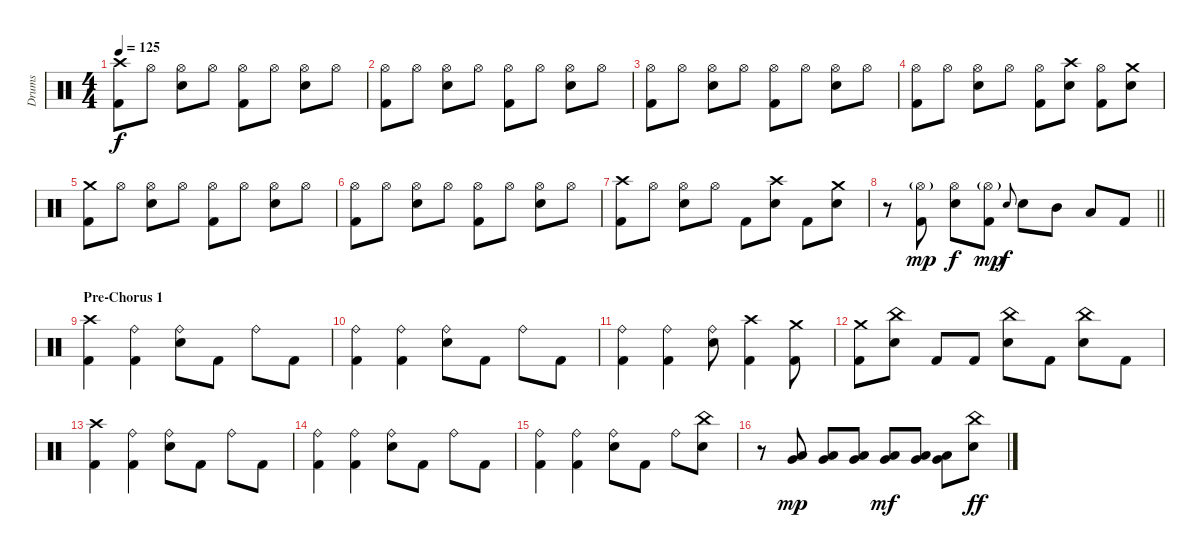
\track ("Drums" "Drums") {instrument percussion}
\staff {score}
\articulation defaults
\ts (4 4)
\tempo 125
\clef neutral
\ks c
("Crash high (hit)" "Kick (hit) 2").8{dy f} "Hi-Hat (open)".8 ("Hi-Hat (open)" "Electric Snare (hit)").8 "Hi-Hat (open)".8 ("Hi-Hat (open)" "Kick (hit) 2").8 "Hi-Hat (open)".8 ("Hi-Hat (open)" "Electric Snare (hit)").8 "Hi-Hat (open)".8 |
("Hi-Hat (open)" "Kick (hit) 2").8 "Hi-Hat (open)".8 ("Hi-Hat (open)" "Electric Snare (hit)").8 "Hi-Hat (open)".8 ("Hi-Hat (open)" "Kick (hit) 2").8 "Hi-Hat (open)".8 ("Hi-Hat (open)" "Electric Snare (hit)").8 "Hi-Hat (open)".8 |
("Hi-Hat (open)" "Kick (hit) 2").8 "Hi-Hat (open)".8 ("Hi-Hat (open)" "Electric Snare (hit)").8 "Hi-Hat (open)".8 ("Hi-Hat (open)" "Kick (hit) 2").8 "Hi-Hat (open)".8 ("Hi-Hat (open)" "Electric Snare (hit)").8 "Hi-Hat (open)".8 |
("Hi-Hat (open)" "Kick (hit) 2").8 "Hi-Hat (open)".8 ("Hi-Hat (open)" "Electric Snare (hit)").8 "Hi-Hat (open)".8 ("Hi-Hat (open)" "Kick (hit) 2").8 ("Crash high (hit)" "Electric Snare (hit)").8 ("Hi-Hat (open)" "Kick (hit) 2").8 ("Crash medium (hit)" "Electric Snare (hit)").8 |
("Crash medium (hit)" "Kick (hit) 2").8 "Hi-Hat (open)".8 ("Hi-Hat (open)" "Electric Snare (hit)").8 "Hi-Hat (open)".8 ("Hi-Hat (open)" "Kick (hit) 2").8 "Hi-Hat (open)".8 ("Hi-Hat (open)" "Electric Snare (hit)").8 "Hi-Hat (open)".8 |
("Hi-Hat (open)" "Kick (hit) 2").8 "Hi-Hat (open)".8 ("Hi-Hat (open)" "Electric Snare (hit)").8 "Hi-Hat (open)".8 ("Hi-Hat (open)" "Kick (hit) 2").8 "Hi-Hat (open)".8 ("Hi-Hat (open)" "Electric Snare (hit)").8 "Hi-Hat (open)".8 |
("Crash high (hit)" "Kick (hit) 2").8 "Hi-Hat (open)".8 ("Hi-Hat (open)" "Electric Snare (hit)").8 "Hi-Hat (open)".8 "Kick (hit) 2".8 ("Crash high (hit)" "Electric Snare (hit)").8 "Kick (hit) 2".8 ("Crash medium (hit)" "Electric Snare (hit)").8 |
\barLineRight lightlight
r.8 ("Hi-Hat (open)"{g} "Kick (hit) 2").8{dy mp} ("Hi-Hat (open)" "Electric Snare (hit)").8{dy f} ("Hi-Hat (open)"{g} "Kick (hit) 2").8{dy mp} "Electric Snare (hit)".8{gr onbeat dy f} "Electric Snare (hit)".8 "Mid Tom (hit)".8 "Low Tom (hit)".8 "Kick (hit) 2".8 |
\section ("" "Pre-Chorus 1")
("Crash high (hit)" "Kick (hit) 2").4 ("Ride (bell)" "Kick (hit) 2").4 ("Ride (bell)" "Electric Snare (hit)").8 "Kick (hit) 2".8 "Ride (bell)".8 "Kick (hit) 2".8 |
("Ride (bell)" "Kick (hit) 2").4 ("Ride (bell)" "Kick (hit) 2").4 ("Ride (bell)" "Electric Snare (hit)").8 "Kick (hit) 2".8 "Ride (bell)".8 "Kick (hit) 2".8 |
("Ride (bell)" "Kick (hit) 2").4 ("Ride (bell)" "Kick (hit) 2").4 ("Ride (bell)" "Electric Snare (hit)").8 ("Crash high (hit)" "Kick (hit) 2").4 ("Crash medium (hit)" "Kick (hit) 2").8 |
("Crash medium (hit)" "Kick (hit) 2").8 ("China (hit)" "Electric Snare (hit)").8 "Kick (hit) 2".8 "Kick (hit) 2".8 ("China (hit)" "Electric Snare (hit)").8 "Kick (hit) 2".8 ("China (hit)" "Electric Snare (hit)").8 "Kick (hit) 2".8 |
("Crash high (hit)" "Kick (hit) 2").4 ("Ride (bell)" "Kick (hit) 2").4 ("Ride (bell)" "Electric Snare (hit)").8 "Kick (hit) 2".8 "Ride (bell)".8 "Kick (hit) 2".8 |
("Ride (bell)" "Kick (hit) 2").4 ("Ride (bell)" "Kick (hit) 2").4 ("Ride (bell)" "Electric Snare (hit)").8 "Kick (hit) 2".8 "Ride (bell)".8 "Kick (hit) 2".8 |
("Ride (bell)" "Kick (hit) 2").4 ("Ride (bell)" "Kick (hit) 2").4 ("Ride (bell)" "Electric Snare (hit)").8 "Kick (hit) 2".8 "Ride (bell)".8 ("China (hit)" "Electric Snare (hit)").8 |
r.8 ("Very Low Tom (hit)" "Low Floor Tom (hit)").8{dy mp} ("Very Low Tom (hit)" "Low Floor Tom (hit)").8 ("Very Low Tom (hit)" "Low Floor Tom (hit)").8 ("Very Low Tom (hit)" "Low Floor Tom (hit)").8{dy mf} ("Very Low Tom (hit)" "Low Floor Tom (hit)").8 ("Very Low Tom (hit)" "Low Floor Tom (hit)").8 ("China (hit)" "Electric Snare (hit)").8{dy ff}
